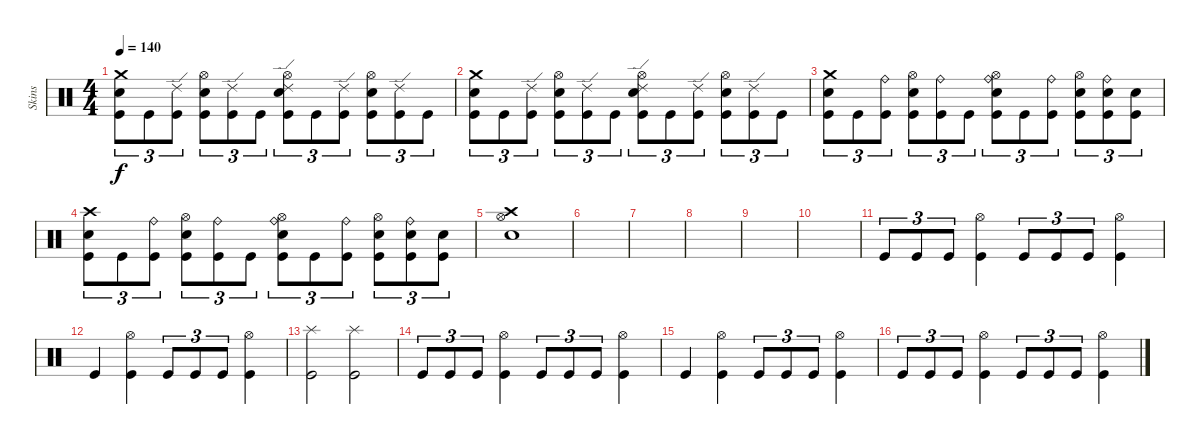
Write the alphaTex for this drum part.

\track ("Skins" "Skins") {instrument percussion}
\staff {score}
\articulation defaults
\ts (4 4)
\tempo 140
\clef neutral
\ks c
("Crash medium (hit)" "Electric Snare (hit)" "Kick (hit)").8{tu (3 2) dy f} "Kick (hit)".8{tu (3 2)} ("Ride (edge) 2" "Kick (hit)").8{tu (3 2)} ("Hi-Hat (open)" "Electric Snare (hit)" "Kick (hit)").8{tu (3 2)} ("Ride (edge) 2" "Kick (hit)").8{tu (3 2)} "Kick (hit)".8{tu (3 2)} ("Ride (edge) 2" "Hi-Hat (open)" "Electric Snare (hit)" "Kick (hit)").8{tu (3 2)} "Kick (hit)".8{tu (3 2)} ("Ride (edge) 2" "Kick (hit)").8{tu (3 2)} ("Hi-Hat (open)" "Electric Snare (hit)" "Kick (hit)").8{tu (3 2)} ("Ride (edge) 2" "Kick (hit)").8{tu (3 2)} "Kick (hit)".8{tu (3 2)} |
("Crash medium (hit)" "Electric Snare (hit)" "Kick (hit)").8{tu (3 2)} "Kick (hit)".8{tu (3 2)} ("Ride (edge) 2" "Kick (hit)").8{tu (3 2)} ("Hi-Hat (open)" "Electric Snare (hit)" "Kick (hit)").8{tu (3 2)} ("Ride (edge) 2" "Kick (hit)").8{tu (3 2)} "Kick (hit)".8{tu (3 2)} ("Ride (edge) 2" "Hi-Hat (open)" "Electric Snare (hit)" "Kick (hit)").8{tu (3 2)} "Kick (hit)".8{tu (3 2)} ("Ride (edge) 2" "Kick (hit)").8{tu (3 2)} ("Hi-Hat (open)" "Electric Snare (hit)" "Kick (hit)").8{tu (3 2)} ("Ride (edge) 2" "Kick (hit)").8{tu (3 2)} "Kick (hit)".8{tu (3 2)} |
("Crash medium (hit)" "Snare (hit) 2" "Kick (hit)").8{tu (3 2)} "Kick (hit)".8{tu (3 2)} ("Ride (bell)" "Kick (hit)").8{tu (3 2)} ("Hi-Hat (open)" "Snare (hit) 2" "Kick (hit)").8{tu (3 2)} ("Ride (bell)" "Kick (hit)").8{tu (3 2)} "Kick (hit)".8{tu (3 2)} ("Ride (bell)" "Hi-Hat (open)" "Snare (hit) 2" "Kick (hit)").8{tu (3 2)} "Kick (hit)".8{tu (3 2)} ("Ride (bell)" "Kick (hit)").8{tu (3 2)} ("Hi-Hat (open)" "Snare (hit) 2" "Kick (hit)").8{tu (3 2)} ("Ride (bell)" "Snare (hit) 2" "Kick (hit)").8{tu (3 2)} ("Snare (hit) 2" "Kick (hit)").8{tu (3 2)} |
("Crash high (hit)" "Snare (hit) 2" "Kick (hit)").8{tu (3 2)} "Kick (hit)".8{tu (3 2)} ("Ride (bell)" "Kick (hit)").8{tu (3 2)} ("Hi-Hat (open)" "Snare (hit) 2" "Kick (hit)").8{tu (3 2)} ("Ride (bell)" "Kick (hit)").8{tu (3 2)} "Kick (hit)".8{tu (3 2)} ("Ride (bell)" "Hi-Hat (open)" "Snare (hit) 2" "Kick (hit)").8{tu (3 2)} "Kick (hit)".8{tu (3 2)} ("Ride (bell)" "Kick (hit)").8{tu (3 2)} ("Hi-Hat (open)" "Snare (hit) 2" "Kick (hit)").8{tu (3 2)} ("Ride (bell)" "Snare (hit) 2" "Kick (hit)").8{tu (3 2)} ("Snare (hit) 2" "Kick (hit)").8{tu (3 2)} |
("Crash high (hit)" "Hi-Hat (open)" "Snare (hit) 2").1 |
|
|
|
|
|
"Kick (hit)".8{tu (3 2)} "Kick (hit)".8{tu (3 2)} "Kick (hit)".8{tu (3 2)} ("Hi-Hat (open)" "Kick (hit)").4 "Kick (hit)".8{tu (3 2)} "Kick (hit)".8{tu (3 2)} "Kick (hit)".8{tu (3 2)} ("Hi-Hat (open)" "Kick (hit)").4 |
"Kick (hit)".4 ("Hi-Hat (open)" "Kick (hit)").4 "Kick (hit)".8{tu (3 2)} "Kick (hit)".8{tu (3 2)} "Kick (hit)".8{tu (3 2)} ("Hi-Hat (open)" "Kick (hit)").4 |
("Splash (hit)" "Kick (hit)").2 ("Splash (hit)" "Kick (hit)").2 |
"Kick (hit)".8{tu (3 2)} "Kick (hit)".8{tu (3 2)} "Kick (hit)".8{tu (3 2)} ("Hi-Hat (open)" "Kick (hit)").4 "Kick (hit)".8{tu (3 2)} "Kick (hit)".8{tu (3 2)} "Kick (hit)".8{tu (3 2)} ("Hi-Hat (open)" "Kick (hit)").4 |
"Kick (hit)".4 ("Hi-Hat (open)" "Kick (hit)").4 "Kick (hit)".8{tu (3 2)} "Kick (hit)".8{tu (3 2)} "Kick (hit)".8{tu (3 2)} ("Hi-Hat (open)" "Kick (hit)").4 |
"Kick (hit)".8{tu (3 2)} "Kick (hit)".8{tu (3 2)} "Kick (hit)".8{tu (3 2)} ("Hi-Hat (open)" "Kick (hit)").4 "Kick (hit)".8{tu (3 2)} "Kick (hit)".8{tu (3 2)} "Kick (hit)".8{tu (3 2)} ("Hi-Hat (open)" "Kick (hit)").4
